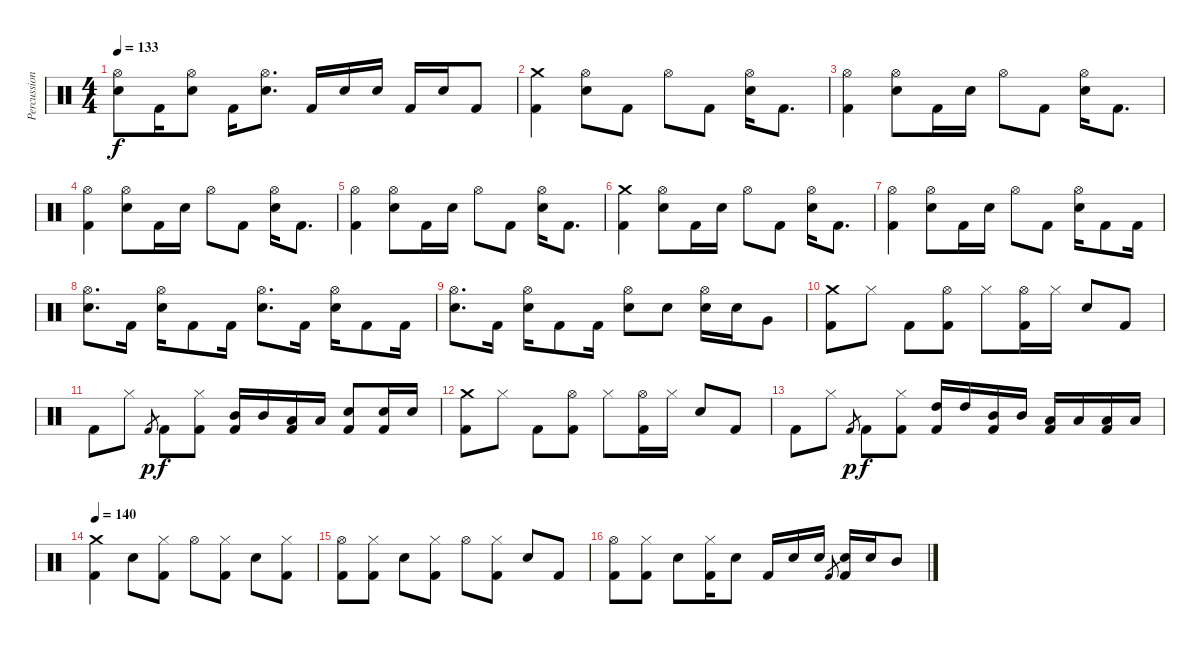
\track ("Percussion" "Percussion") {instrument percussion}
\staff {score}
\articulation defaults
\ts (4 4)
\tempo 133
\clef neutral
\ks c
("Hi-Hat (open)" "Electric Snare (hit)").8{dy f} "Kick (hit) 2".16 ("Hi-Hat (open)" "Electric Snare (hit)").8 "Kick (hit) 2".16 ("Hi-Hat (open)" "Electric Snare (hit)").8{d} "Kick (hit) 2".16 "Electric Snare (hit)".16 "Electric Snare (hit)".16 "Kick (hit) 2".16 "Electric Snare (hit)".16 "Kick (hit) 2".8 |
("Crash medium (hit)" "Kick (hit) 2").4 ("Hi-Hat (open)" "Electric Snare (hit)").8 "Kick (hit) 2".8 "Hi-Hat (open)".8 "Kick (hit) 2".8 ("Hi-Hat (open)" "Electric Snare (hit)").16 "Kick (hit) 2".8{d} |
("Hi-Hat (open)" "Kick (hit) 2").4 ("Hi-Hat (open)" "Electric Snare (hit)").8 "Kick (hit) 2".16 "Electric Snare (hit)".16 "Hi-Hat (open)".8 "Kick (hit) 2".8 ("Hi-Hat (open)" "Electric Snare (hit)").16 "Kick (hit) 2".8{d} |
("Hi-Hat (open)" "Kick (hit) 2").4 ("Hi-Hat (open)" "Electric Snare (hit)").8 "Kick (hit) 2".16 "Electric Snare (hit)".16 "Hi-Hat (open)".8 "Kick (hit) 2".8 ("Hi-Hat (open)" "Electric Snare (hit)").16 "Kick (hit) 2".8{d} |
("Hi-Hat (open)" "Kick (hit) 2").4 ("Hi-Hat (open)" "Electric Snare (hit)").8 "Kick (hit) 2".16 "Electric Snare (hit)".16 "Hi-Hat (open)".8 "Kick (hit) 2".8 ("Hi-Hat (open)" "Electric Snare (hit)").16 "Kick (hit) 2".8{d} |
("Crash medium (hit)" "Kick (hit) 2").4 ("Hi-Hat (open)" "Electric Snare (hit)").8 "Kick (hit) 2".16 "Electric Snare (hit)".16 "Hi-Hat (open)".8 "Kick (hit) 2".8 ("Hi-Hat (open)" "Electric Snare (hit)").16 "Kick (hit) 2".8{d} |
("Hi-Hat (open)" "Kick (hit) 2").4 ("Hi-Hat (open)" "Electric Snare (hit)").8 "Kick (hit) 2".16 "Electric Snare (hit)".16 "Hi-Hat (open)".8 "Kick (hit) 2".8 ("Hi-Hat (open)" "Electric Snare (hit)").16 "Kick (hit) 2".8 "Kick (hit) 2".16 |
("Hi-Hat (open)" "Electric Snare (hit)").8{d} "Kick (hit) 2".16 ("Hi-Hat (open)" "Electric Snare (hit)").16 "Kick (hit) 2".8 "Kick (hit) 2".16 ("Hi-Hat (open)" "Electric Snare (hit)").8{d} "Kick (hit) 2".16 ("Hi-Hat (open)" "Electric Snare (hit)").16 "Kick (hit) 2".8 "Kick (hit) 2".16 |
("Hi-Hat (open)" "Electric Snare (hit)").8{d} "Kick (hit) 2".16 ("Hi-Hat (open)" "Electric Snare (hit)").16 "Kick (hit) 2".8 "Kick (hit) 2".16 ("Hi-Hat (open)" "Electric Snare (hit)").8 "Electric Snare (hit)".8 ("Hi-Hat (open)" "Electric Snare (hit)").16 "Electric Snare (hit)".16 "Very Low Tom (hit)".8 |
("Crash medium (hit)" "Kick (hit) 2").8 "Hi-Hat (closed)".8 "Kick (hit) 2".8 ("Hi-Hat (open)" "Kick (hit) 2").8 "Hi-Hat (closed)".8 ("Hi-Hat (open)" "Kick (hit) 2").16 "Hi-Hat (closed)".16 "Electric Snare (hit)".8 "Kick (hit) 2".8 |
"Kick (hit) 2".8 "Hi-Hat (closed)".8 "Kick (hit) 2".8{gr dy p} "Kick (hit) 2".8{dy f} ("Hi-Hat (closed)" "Kick (hit) 2").8 ("Mid Tom (hit)" "Kick (hit) 2").16 "Mid Tom (hit)".16 ("Low Floor Tom (hit)" "Kick (hit) 2").16 "Low Floor Tom (hit)".16 ("Electric Snare (hit)" "Kick (hit) 2").8 ("Electric Snare (hit)" "Kick (hit) 2").16 "Electric Snare (hit)".16 |
("Crash medium (hit)" "Kick (hit) 2").8 "Hi-Hat (closed)".8 "Kick (hit) 2".8 ("Hi-Hat (open)" "Kick (hit) 2").8 "Hi-Hat (closed)".8 ("Hi-Hat (open)" "Kick (hit) 2").16 "Hi-Hat (closed)".16 "Electric Snare (hit)".8 "Kick (hit) 2".8 |
"Kick (hit) 2".8 "Hi-Hat (closed)".8 "Kick (hit) 2".8{gr dy p} "Kick (hit) 2".8{dy f} ("Hi-Hat (closed)" "Kick (hit) 2").8 ("High Tom (hit)" "Kick (hit) 2").16 "High Tom (hit)".16 ("Mid Tom (hit)" "Kick (hit) 2").16 "Mid Tom (hit)".16 ("Low Tom (hit)" "Kick (hit) 2").16 "Low Tom (hit)".16 ("Low Floor Tom (hit)" "Kick (hit) 2").16 "Low Floor Tom (hit)".16 |
\tempo 140
("Crash medium (hit)" "Kick (hit) 2").4 "Electric Snare (hit)".8 ("Hi-Hat (closed)" "Kick (hit) 2").8 "Hi-Hat (open)".8 ("Hi-Hat (closed)" "Kick (hit) 2").8 "Electric Snare (hit)".8 ("Hi-Hat (closed)" "Kick (hit) 2").8 |
("Hi-Hat (open)" "Kick (hit) 2").8 ("Hi-Hat (closed)" "Kick (hit) 2").8 "Electric Snare (hit)".8 ("Hi-Hat (closed)" "Kick (hit) 2").8 "Hi-Hat (open)".8 ("Hi-Hat (closed)" "Kick (hit) 2").8 "Electric Snare (hit)".8 "Kick (hit) 2".8 |
("Hi-Hat (open)" "Kick (hit) 2").8 ("Hi-Hat (closed)" "Kick (hit) 2").8 "Electric Snare (hit)".8 ("Hi-Hat (closed)" "Kick (hit) 2").16 "Electric Snare (hit)".8 "Kick (hit) 2".16 "Electric Snare (hit)".16 "Electric Snare (hit)".16 "Kick (hit) 2".8{gr} ("Electric Snare (hit)" "Kick (hit) 2").16 "Electric Snare (hit)".16 "Mid Tom (hit)".8
